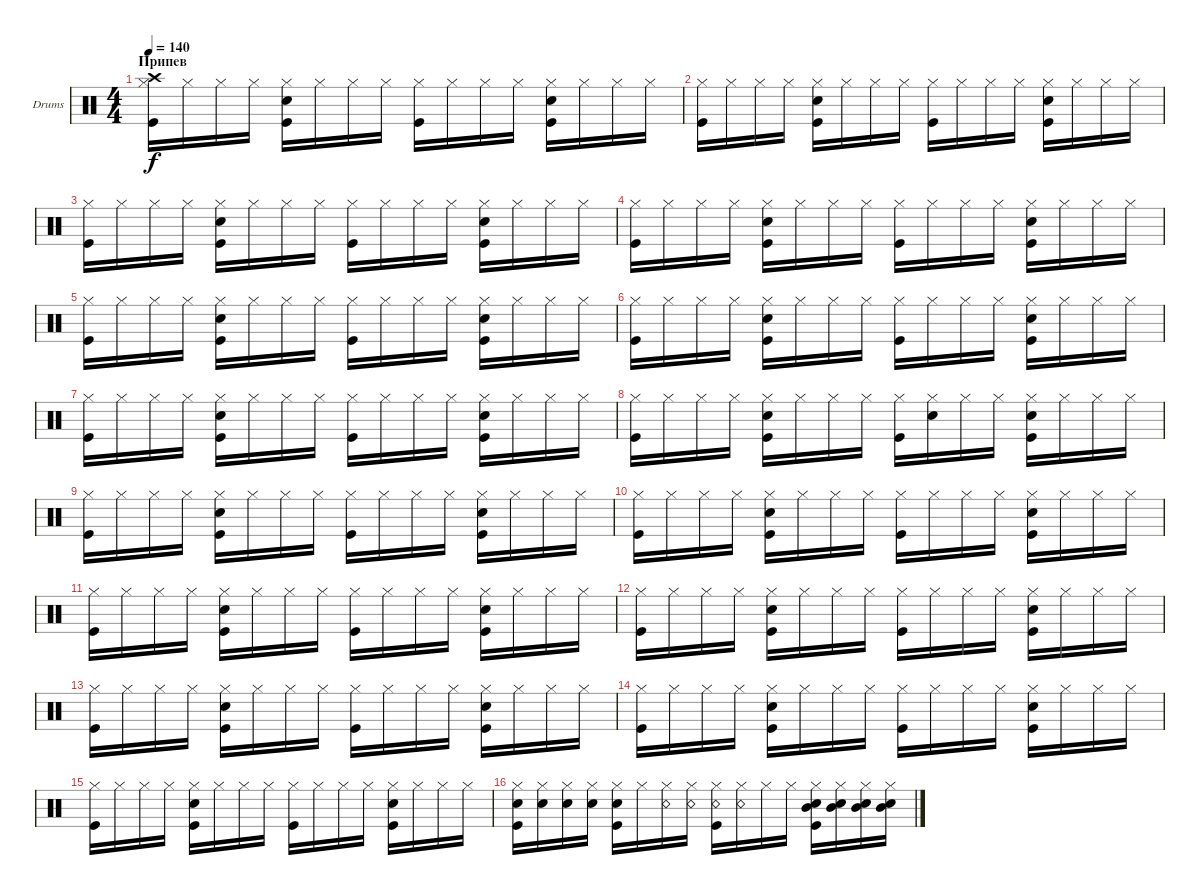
\defaultSystemsLayout 4
\bracketExtendMode groupsimilarinstruments
\firstSystemTrackNameOrientation horizontal
\otherSystemsTrackNameOrientation horizontal
\track ("Drumkit" "Drums") {instrument percussion}
\staff {score}
\articulation defaults
\ts (4 4)
\section ("" "Припев")
\tempo 140
\clef neutral
\ks c
("Hi-Hat (closed)" "Kick (hit)" "Crash high (hit)").16{dy f} "Hi-Hat (closed)".16 "Hi-Hat (closed)".16 "Hi-Hat (closed)".16 ("Hi-Hat (closed)" "Kick (hit)" "Snare (hit) 2").16 "Hi-Hat (closed)".16 "Hi-Hat (closed)".16 "Hi-Hat (closed)".16 ("Hi-Hat (closed)" "Kick (hit)").16 "Hi-Hat (closed)".16 "Hi-Hat (closed)".16 "Hi-Hat (closed)".16 ("Hi-Hat (closed)" "Kick (hit)" "Snare (hit) 2").16 "Hi-Hat (closed)".16 "Hi-Hat (closed)".16 "Hi-Hat (closed)".16 |
("Hi-Hat (closed)" "Kick (hit)").16 "Hi-Hat (closed)".16 "Hi-Hat (closed)".16 "Hi-Hat (closed)".16 ("Hi-Hat (closed)" "Kick (hit)" "Snare (hit) 2").16 "Hi-Hat (closed)".16 "Hi-Hat (closed)".16 "Hi-Hat (closed)".16 ("Hi-Hat (closed)" "Kick (hit)").16 "Hi-Hat (closed)".16 "Hi-Hat (closed)".16 "Hi-Hat (closed)".16 ("Hi-Hat (closed)" "Kick (hit)" "Snare (hit) 2").16 "Hi-Hat (closed)".16 "Hi-Hat (closed)".16 "Hi-Hat (closed)".16 |
("Hi-Hat (closed)" "Kick (hit)").16 "Hi-Hat (closed)".16 "Hi-Hat (closed)".16 "Hi-Hat (closed)".16 ("Hi-Hat (closed)" "Kick (hit)" "Snare (hit) 2").16 "Hi-Hat (closed)".16 "Hi-Hat (closed)".16 "Hi-Hat (closed)".16 ("Hi-Hat (closed)" "Kick (hit)").16 "Hi-Hat (closed)".16 "Hi-Hat (closed)".16 "Hi-Hat (closed)".16 ("Hi-Hat (closed)" "Kick (hit)" "Snare (hit) 2").16 "Hi-Hat (closed)".16 "Hi-Hat (closed)".16 "Hi-Hat (closed)".16 |
("Hi-Hat (closed)" "Kick (hit)").16 "Hi-Hat (closed)".16 "Hi-Hat (closed)".16 "Hi-Hat (closed)".16 ("Hi-Hat (closed)" "Kick (hit)" "Snare (hit) 2").16 "Hi-Hat (closed)".16 "Hi-Hat (closed)".16 "Hi-Hat (closed)".16 ("Hi-Hat (closed)" "Kick (hit)").16 "Hi-Hat (closed)".16 "Hi-Hat (closed)".16 "Hi-Hat (closed)".16 ("Hi-Hat (closed)" "Kick (hit)" "Snare (hit) 2").16 "Hi-Hat (closed)".16 "Hi-Hat (closed)".16 "Hi-Hat (closed)".16 |
("Hi-Hat (closed)" "Kick (hit)").16 "Hi-Hat (closed)".16 "Hi-Hat (closed)".16 "Hi-Hat (closed)".16 ("Hi-Hat (closed)" "Kick (hit)" "Snare (hit) 2").16 "Hi-Hat (closed)".16 "Hi-Hat (closed)".16 "Hi-Hat (closed)".16 ("Hi-Hat (closed)" "Kick (hit)").16 "Hi-Hat (closed)".16 "Hi-Hat (closed)".16 "Hi-Hat (closed)".16 ("Hi-Hat (closed)" "Kick (hit)" "Snare (hit) 2").16 "Hi-Hat (closed)".16 "Hi-Hat (closed)".16 "Hi-Hat (closed)".16 |
("Hi-Hat (closed)" "Kick (hit)").16 "Hi-Hat (closed)".16 "Hi-Hat (closed)".16 "Hi-Hat (closed)".16 ("Hi-Hat (closed)" "Kick (hit)" "Snare (hit) 2").16 "Hi-Hat (closed)".16 "Hi-Hat (closed)".16 "Hi-Hat (closed)".16 ("Hi-Hat (closed)" "Kick (hit)").16 "Hi-Hat (closed)".16 "Hi-Hat (closed)".16 "Hi-Hat (closed)".16 ("Hi-Hat (closed)" "Kick (hit)" "Snare (hit) 2").16 "Hi-Hat (closed)".16 "Hi-Hat (closed)".16 "Hi-Hat (closed)".16 |
("Hi-Hat (closed)" "Kick (hit)").16 "Hi-Hat (closed)".16 "Hi-Hat (closed)".16 "Hi-Hat (closed)".16 ("Hi-Hat (closed)" "Kick (hit)" "Snare (hit) 2").16 "Hi-Hat (closed)".16 "Hi-Hat (closed)".16 "Hi-Hat (closed)".16 ("Hi-Hat (closed)" "Kick (hit)").16 "Hi-Hat (closed)".16 "Hi-Hat (closed)".16 "Hi-Hat (closed)".16 ("Hi-Hat (closed)" "Kick (hit)" "Snare (hit) 2").16 "Hi-Hat (closed)".16 "Hi-Hat (closed)".16 "Hi-Hat (closed)".16 |
("Hi-Hat (closed)" "Kick (hit)").16 "Hi-Hat (closed)".16 "Hi-Hat (closed)".16 "Hi-Hat (closed)".16 ("Hi-Hat (closed)" "Kick (hit)" "Snare (hit) 2").16 "Hi-Hat (closed)".16 "Hi-Hat (closed)".16 "Hi-Hat (closed)".16 ("Hi-Hat (closed)" "Kick (hit)").16 ("Hi-Hat (closed)" "Snare (hit) 2").16 "Hi-Hat (closed)".16 "Hi-Hat (closed)".16 ("Hi-Hat (closed)" "Kick (hit)" "Snare (hit) 2").16 "Hi-Hat (closed)".16 "Hi-Hat (closed)".16 "Hi-Hat (closed)".16 |
("Hi-Hat (closed)" "Kick (hit)").16 "Hi-Hat (closed)".16 "Hi-Hat (closed)".16 "Hi-Hat (closed)".16 ("Hi-Hat (closed)" "Kick (hit)" "Snare (hit) 2").16 "Hi-Hat (closed)".16 "Hi-Hat (closed)".16 "Hi-Hat (closed)".16 ("Hi-Hat (closed)" "Kick (hit)").16 "Hi-Hat (closed)".16 "Hi-Hat (closed)".16 "Hi-Hat (closed)".16 ("Hi-Hat (closed)" "Kick (hit)" "Snare (hit) 2").16 "Hi-Hat (closed)".16 "Hi-Hat (closed)".16 "Hi-Hat (closed)".16 |
("Hi-Hat (closed)" "Kick (hit)").16 "Hi-Hat (closed)".16 "Hi-Hat (closed)".16 "Hi-Hat (closed)".16 ("Hi-Hat (closed)" "Kick (hit)" "Snare (hit) 2").16 "Hi-Hat (closed)".16 "Hi-Hat (closed)".16 "Hi-Hat (closed)".16 ("Hi-Hat (closed)" "Kick (hit)").16 "Hi-Hat (closed)".16 "Hi-Hat (closed)".16 "Hi-Hat (closed)".16 ("Hi-Hat (closed)" "Kick (hit)" "Snare (hit) 2").16 "Hi-Hat (closed)".16 "Hi-Hat (closed)".16 "Hi-Hat (closed)".16 |
("Hi-Hat (closed)" "Kick (hit)").16 "Hi-Hat (closed)".16 "Hi-Hat (closed)".16 "Hi-Hat (closed)".16 ("Hi-Hat (closed)" "Kick (hit)" "Snare (hit) 2").16 "Hi-Hat (closed)".16 "Hi-Hat (closed)".16 "Hi-Hat (closed)".16 ("Hi-Hat (closed)" "Kick (hit)").16 "Hi-Hat (closed)".16 "Hi-Hat (closed)".16 "Hi-Hat (closed)".16 ("Hi-Hat (closed)" "Kick (hit)" "Snare (hit) 2").16 "Hi-Hat (closed)".16 "Hi-Hat (closed)".16 "Hi-Hat (closed)".16 |
("Hi-Hat (closed)" "Kick (hit)").16 "Hi-Hat (closed)".16 "Hi-Hat (closed)".16 "Hi-Hat (closed)".16 ("Hi-Hat (closed)" "Kick (hit)" "Snare (hit) 2").16 "Hi-Hat (closed)".16 "Hi-Hat (closed)".16 "Hi-Hat (closed)".16 ("Hi-Hat (closed)" "Kick (hit)").16 "Hi-Hat (closed)".16 "Hi-Hat (closed)".16 "Hi-Hat (closed)".16 ("Hi-Hat (closed)" "Kick (hit)" "Snare (hit) 2").16 "Hi-Hat (closed)".16 "Hi-Hat (closed)".16 "Hi-Hat (closed)".16 |
("Hi-Hat (closed)" "Kick (hit)").16 "Hi-Hat (closed)".16 "Hi-Hat (closed)".16 "Hi-Hat (closed)".16 ("Hi-Hat (closed)" "Kick (hit)" "Snare (hit) 2").16 "Hi-Hat (closed)".16 "Hi-Hat (closed)".16 "Hi-Hat (closed)".16 ("Hi-Hat (closed)" "Kick (hit)").16 "Hi-Hat (closed)".16 "Hi-Hat (closed)".16 "Hi-Hat (closed)".16 ("Hi-Hat (closed)" "Kick (hit)" "Snare (hit) 2").16 "Hi-Hat (closed)".16 "Hi-Hat (closed)".16 "Hi-Hat (closed)".16 |
("Hi-Hat (closed)" "Kick (hit)").16 "Hi-Hat (closed)".16 "Hi-Hat (closed)".16 "Hi-Hat (closed)".16 ("Hi-Hat (closed)" "Kick (hit)" "Snare (hit) 2").16 "Hi-Hat (closed)".16 "Hi-Hat (closed)".16 "Hi-Hat (closed)".16 ("Hi-Hat (closed)" "Kick (hit)").16 "Hi-Hat (closed)".16 "Hi-Hat (closed)".16 "Hi-Hat (closed)".16 ("Hi-Hat (closed)" "Kick (hit)" "Snare (hit) 2").16 "Hi-Hat (closed)".16 "Hi-Hat (closed)".16 "Hi-Hat (closed)".16 |
("Hi-Hat (closed)" "Kick (hit)").16 "Hi-Hat (closed)".16 "Hi-Hat (closed)".16 "Hi-Hat (closed)".16 ("Hi-Hat (closed)" "Kick (hit)" "Snare (hit) 2").16 "Hi-Hat (closed)".16 "Hi-Hat (closed)".16 "Hi-Hat (closed)".16 ("Hi-Hat (closed)" "Kick (hit)").16 "Hi-Hat (closed)".16 "Hi-Hat (closed)".16 "Hi-Hat (closed)".16 ("Hi-Hat (closed)" "Kick (hit)" "Snare (hit) 2").16 "Hi-Hat (closed)".16 "Hi-Hat (closed)".16 "Hi-Hat (closed)".16 |
("Hi-Hat (closed)" "Kick (hit)" "Snare (hit) 2").16 ("Hi-Hat (closed)" "Snare (hit) 2").16 ("Hi-Hat (closed)" "Snare (hit) 2").16 ("Hi-Hat (closed)" "Snare (hit) 2").16 ("Hi-Hat (closed)" "Kick (hit)" "Snare (hit) 2").16 "Hi-Hat (closed)".16 ("Hi-Hat (closed)" "Snare (rim shot)").16 ("Hi-Hat (closed)" "Snare (rim shot)").16 ("Hi-Hat (closed)" "Kick (hit)" "Snare (rim shot)").16 ("Hi-Hat (closed)" "Snare (rim shot)").16 "Hi-Hat (closed)".16 "Hi-Hat (closed)".16 ("Hi-Hat (closed)" "Kick (hit)" "Snare (hit) 2" "Mid Tom (hit)").16 ("Hi-Hat (closed)" "Snare (hit) 2" "Mid Tom (hit)").16 ("Hi-Hat (closed)" "Snare (hit) 2" "Mid Tom (hit)").16 ("Hi-Hat (closed)" "Snare (hit) 2" "Mid Tom (hit)").16
